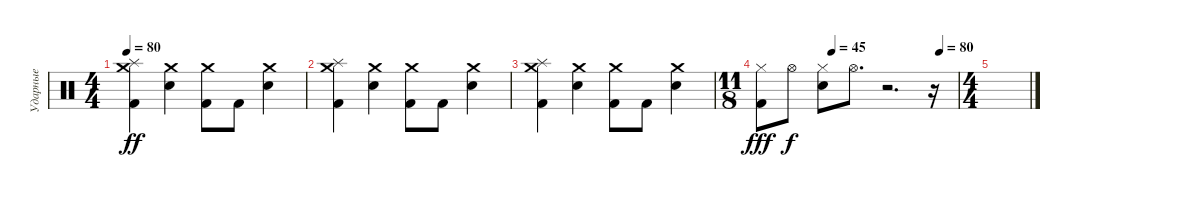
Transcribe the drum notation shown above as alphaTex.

\track ("Ударные" "Ударные") {instrument percussion}
\staff {score}
\articulation defaults
\ts (4 4)
\tempo 80
\clef neutral
\ks c
("Splash (hit)" "Crash medium (hit)" "Kick (hit) 2").4{dy ff} ("Crash medium (hit)" "Snare (hit) 2").4 ("Crash medium (hit)" "Kick (hit) 2").8 "Kick (hit) 2".8 ("Crash medium (hit)" "Snare (hit) 2").4 |
("Splash (hit)" "Crash medium (hit)" "Kick (hit) 2").4 ("Crash medium (hit)" "Snare (hit) 2").4 ("Crash medium (hit)" "Kick (hit) 2").8 "Kick (hit) 2".8 ("Crash medium (hit)" "Snare (hit) 2").4 |
("Splash (hit)" "Crash medium (hit)" "Kick (hit) 2").4 ("Crash medium (hit)" "Snare (hit) 2").4 ("Crash medium (hit)" "Kick (hit) 2").8 "Kick (hit) 2".8 ("Crash medium (hit)" "Snare (hit) 2").4 |
\ts (11 8)
\tempo (45 0.36363636363636365)
\tempo (80 0.9090909090909091)
("Hi-Hat (closed)" "Kick (hit) 2").8{dy fff} "Hi-Hat (open)".8{dy f} ("Hi-Hat (closed)" "Snare (hit) 2").8 "Hi-Hat (open)".8{d} r.2{d} r.16 |
\ts (4 4)
